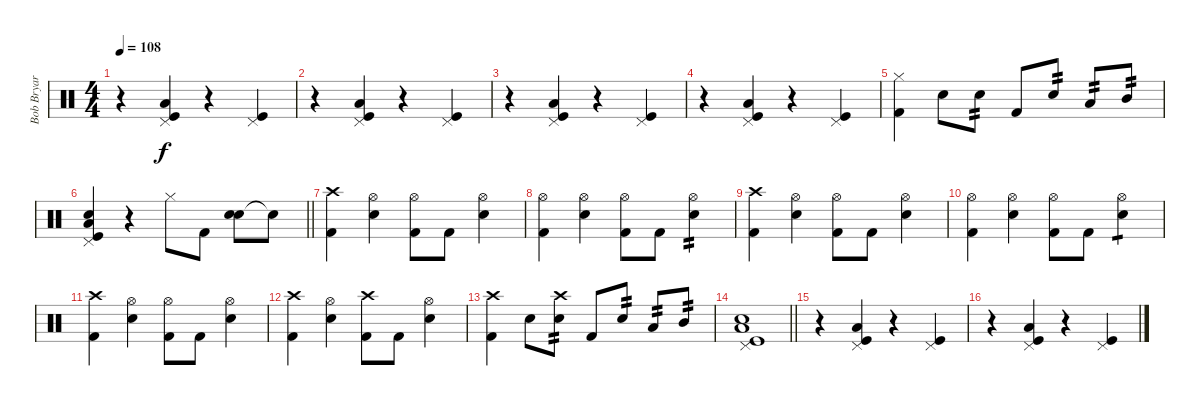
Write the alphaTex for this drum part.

\track ("Bob Bryar [Drums]" "Bob Bryar ") {instrument percussion}
\staff {score}
\articulation defaults
\ts (4 4)
\tempo 108
\clef neutral
\ks c
r.4{dy f} ("Pedal Hi-Hat (hit)" "Low Floor Tom (hit)" "Kick (hit)").4 r.4 ("Pedal Hi-Hat (hit)" "Kick (hit)").4 |
r.4 ("Pedal Hi-Hat (hit)" "Low Floor Tom (hit)" "Kick (hit)").4 r.4 ("Pedal Hi-Hat (hit)" "Kick (hit)").4 |
r.4 ("Pedal Hi-Hat (hit)" "Low Floor Tom (hit)" "Kick (hit)").4 r.4 ("Pedal Hi-Hat (hit)" "Kick (hit)").4 |
r.4 ("Pedal Hi-Hat (hit)" "Low Floor Tom (hit)" "Kick (hit)").4 r.4 ("Pedal Hi-Hat (hit)" "Kick (hit)").4 |
("Hi-Hat (closed)" "Kick (hit) 2").4 "Electric Snare (hit)".8 "Electric Snare (hit)".8{tp 2} "Kick (hit) 2".8 "Electric Snare (hit)".8{tp 2} "Low Tom (hit)".8{tp 2} "Mid Tom (hit)".8{tp 2} |
\barLineRight lightlight
("Pedal Hi-Hat (hit)" "Snare (hit) 2" "Low Floor Tom (hit)" "Kick (hit)").4 r.4 "Hi-Hat (closed)".8 "Kick (hit) 2".8 ("Electric Snare (hit)" "Electric Snare (hit)").8 "Electric Snare (hit)"{t}.8 |
("Crash high (hit)" "Kick (hit) 2").4 ("Hi-Hat (open)" "Electric Snare (hit)").4 ("Hi-Hat (open)" "Kick (hit) 2").8 "Kick (hit) 2".8 ("Hi-Hat (open)" "Electric Snare (hit)").4 |
("Hi-Hat (open)" "Kick (hit) 2").4 ("Hi-Hat (open)" "Electric Snare (hit)").4 ("Hi-Hat (open)" "Kick (hit) 2").8 "Kick (hit) 2".8 ("Hi-Hat (open)" "Electric Snare (hit)").4{tp 2} |
("Crash high (hit)" "Kick (hit) 2").4 ("Hi-Hat (open)" "Electric Snare (hit)").4 ("Hi-Hat (open)" "Kick (hit) 2").8 "Kick (hit) 2".8 ("Hi-Hat (open)" "Electric Snare (hit)").4 |
("Hi-Hat (open)" "Kick (hit) 2").4 ("Hi-Hat (open)" "Electric Snare (hit)").4 ("Hi-Hat (open)" "Kick (hit) 2").8 "Kick (hit) 2".8 ("Hi-Hat (open)" "Electric Snare (hit)").4{tp 1} |
("Crash high (hit)" "Kick (hit) 2").4 ("Hi-Hat (open)" "Electric Snare (hit)").4 ("Hi-Hat (open)" "Kick (hit) 2").8 "Kick (hit) 2".8 ("Hi-Hat (open)" "Electric Snare (hit)").4 |
("Crash high (hit)" "Kick (hit) 2").4 ("Hi-Hat (open)" "Electric Snare (hit)").4 ("Crash high (hit)" "Kick (hit) 2").8 "Kick (hit) 2".8 ("Hi-Hat (open)" "Electric Snare (hit)").4 |
("Crash high (hit)" "Kick (hit) 2").4 "Electric Snare (hit)".8 ("Crash high (hit)" "Electric Snare (hit)").8{tp 2} "Kick (hit) 2".8 "Electric Snare (hit)".8{tp 2} "Low Tom (hit)".8{tp 2} "Mid Tom (hit)".8{tp 2} |
\barLineRight lightlight
("Pedal Hi-Hat (hit)" "Snare (hit) 2" "Low Floor Tom (hit)" "Kick (hit)").1 |
r.4 ("Pedal Hi-Hat (hit)" "Low Floor Tom (hit)" "Kick (hit)").4 r.4 ("Pedal Hi-Hat (hit)" "Kick (hit)").4 |
r.4 ("Pedal Hi-Hat (hit)" "Low Floor Tom (hit)" "Kick (hit)").4 r.4 ("Pedal Hi-Hat (hit)" "Kick (hit)").4
